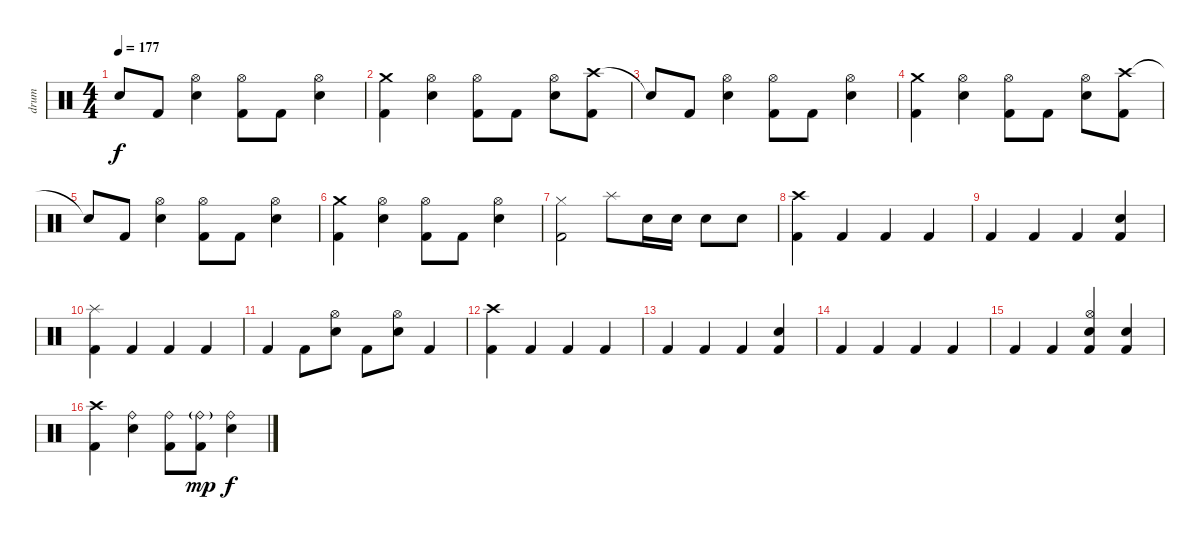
\track ("drum" "drum") {instrument percussion}
\staff {score}
\articulation defaults
\ts (4 4)
\tempo 177
\clef neutral
\ks c "Snare (hit)"{t}.8{dy f} "Kick (hit) 2".8
("Hi-Hat (open)" "Electric Snare (hit)").4 ("Hi-Hat (open)" "Kick (hit) 2").8 "Kick (hit) 2".8 ("Hi-Hat (open)" "Electric Snare (hit)").4 |
("Crash medium (hit)" "Kick (hit) 2").4 ("Hi-Hat (open)" "Electric Snare (hit)").4 ("Hi-Hat (open)" "Kick (hit) 2").8 "Kick (hit) 2".8 ("Hi-Hat (open)" "Electric Snare (hit)").8 ("Crash high (hit)" "Kick (hit) 2").8 |
"Snare (hit)"{t}.8 "Kick (hit) 2".8 ("Hi-Hat (open)" "Electric Snare (hit)").4 ("Hi-Hat (open)" "Kick (hit) 2").8 "Kick (hit) 2".8 ("Hi-Hat (open)" "Electric Snare (hit)").4 |
("Crash medium (hit)" "Kick (hit) 2").4 ("Hi-Hat (open)" "Electric Snare (hit)").4 ("Hi-Hat (open)" "Kick (hit) 2").8 "Kick (hit) 2".8 ("Hi-Hat (open)" "Electric Snare (hit)").8 ("Crash high (hit)" "Kick (hit) 2").8 |
"Snare (hit)"{t}.8 "Kick (hit) 2".8 ("Hi-Hat (open)" "Electric Snare (hit)").4 ("Hi-Hat (open)" "Kick (hit) 2").8 "Kick (hit) 2".8 ("Hi-Hat (open)" "Electric Snare (hit)").4 |
("Crash medium (hit)" "Kick (hit) 2").4 ("Hi-Hat (open)" "Electric Snare (hit)").4 ("Hi-Hat (open)" "Kick (hit) 2").8 "Kick (hit) 2".8 ("Hi-Hat (open)" "Electric Snare (hit)").4 |
("Hi-Hat (closed)" "Kick (hit) 2").2 "Splash (hit)".8 "Electric Snare (hit)".16 "Electric Snare (hit)".16 "Electric Snare (hit)".8 "Electric Snare (hit)".8 |
\section ("" "")
("Crash high (hit)" "Kick (hit) 2").4 "Kick (hit) 2".4 "Kick (hit) 2".4 "Kick (hit) 2".4 |
"Kick (hit) 2".4 "Kick (hit) 2".4 "Kick (hit) 2".4 ("Electric Snare (hit)" "Kick (hit) 2").4 |
("Splash (hit)" "Kick (hit) 2").4 "Kick (hit) 2".4 "Kick (hit) 2".4 "Kick (hit) 2".4 |
"Kick (hit) 2".4 "Kick (hit) 2".8 ("Hi-Hat (open)" "Electric Snare (hit)").8 "Kick (hit) 2".8 ("Hi-Hat (open)" "Electric Snare (hit)").8 "Kick (hit) 2".4 |
("Crash high (hit)" "Kick (hit) 2").4 "Kick (hit) 2".4 "Kick (hit) 2".4 "Kick (hit) 2".4 |
"Kick (hit) 2".4 "Kick (hit) 2".4 "Kick (hit) 2".4 ("Electric Snare (hit)" "Kick (hit) 2").4 |
"Kick (hit) 2".4 "Kick (hit) 2".4 "Kick (hit) 2".4 "Kick (hit) 2".4 |
"Kick (hit) 2".4 "Kick (hit) 2".4 ("Hi-Hat (open)" "Electric Snare (hit)" "Kick (hit) 2").4 ("Electric Snare (hit)" "Kick (hit) 2").4 |
\section ("" "")
("Crash high (hit)" "Kick (hit) 2").4 ("Ride (bell)" "Electric Snare (hit)").4 ("Ride (bell)" "Kick (hit) 2").8 ("Ride (bell)"{g} "Kick (hit) 2").8{dy mp} ("Ride (bell)" "Electric Snare (hit)").4{dy f}
